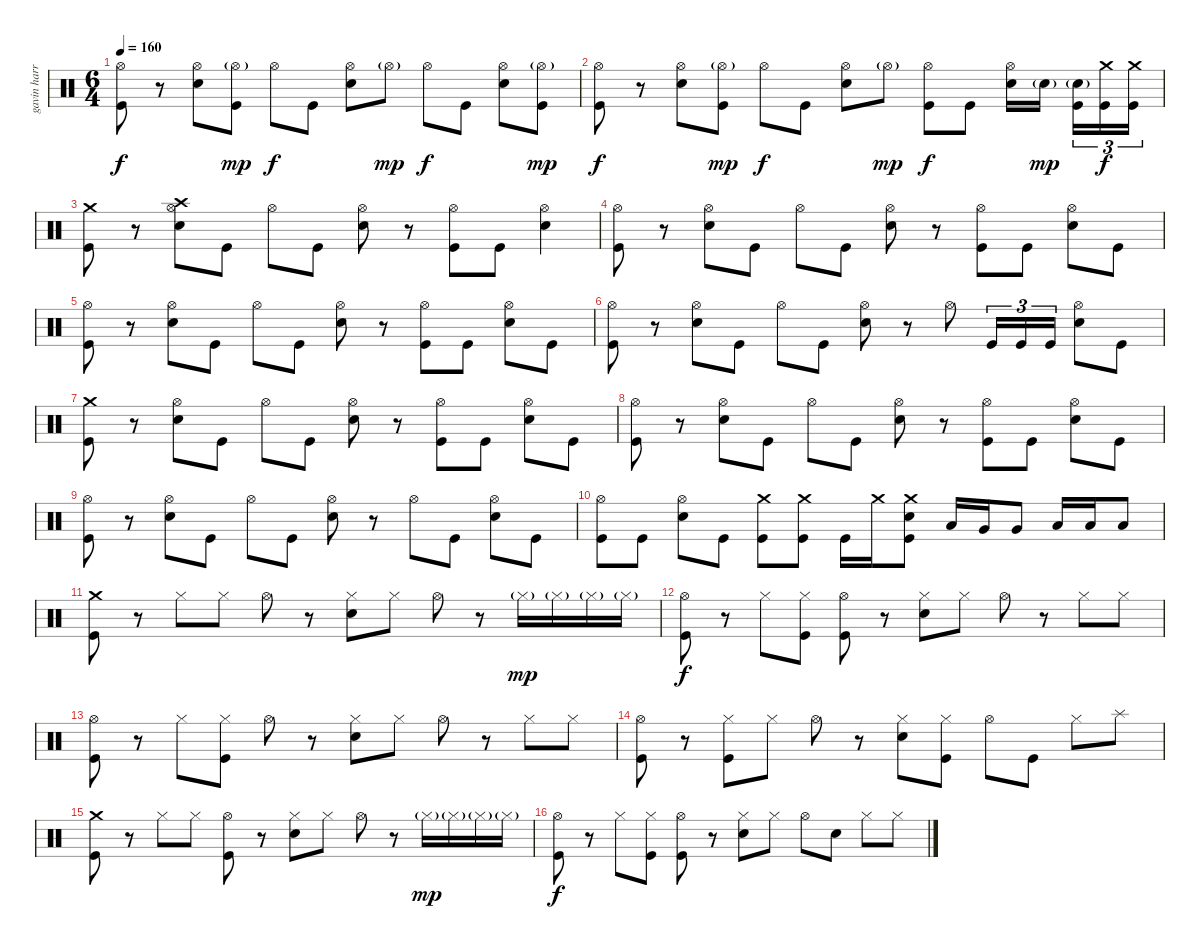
\track ("gavin harrison ( drum ) " "gavin harr") {instrument percussion}
\staff {score}
\articulation defaults
\ts (6 4)
\tempo 160
\clef neutral
\ks c
("Hi-Hat (open)" "Kick (hit)").8{dy f} r.8 ("Hi-Hat (open)" "Snare (hit) 2").8 ("Hi-Hat (open)"{g} "Kick (hit)").8{dy mp} "Hi-Hat (open)".8{dy f} "Kick (hit)".8 ("Hi-Hat (open)" "Snare (hit) 2").8 "Hi-Hat (open)"{g}.8{dy mp} "Hi-Hat (open)".8{dy f} "Kick (hit)".8 ("Hi-Hat (open)" "Snare (hit) 2").8 ("Hi-Hat (open)"{g} "Kick (hit)").8{dy mp} |
("Hi-Hat (open)" "Kick (hit)").8{dy f} r.8 ("Hi-Hat (open)" "Snare (hit) 2").8 ("Hi-Hat (open)"{g} "Kick (hit)").8{dy mp} "Hi-Hat (open)".8{dy f} "Kick (hit)".8 ("Hi-Hat (open)" "Snare (hit) 2").8 "Hi-Hat (open)"{g}.8{dy mp} ("Hi-Hat (open)" "Kick (hit)").8{dy f} "Kick (hit)".8 ("Hi-Hat (open)" "Snare (hit) 2").16 "Snare (hit) 2"{g}.16{dy mp beam splitsecondary} ("Snare (hit) 2"{g} "Kick (hit)").16{tu (3 2)} ("Crash medium (hit)" "Kick (hit)").16{tu (3 2) dy f} ("Crash medium (hit)" "Kick (hit)").16{tu (3 2)} |
("Crash medium (hit)" "Kick (hit)").8 r.8 ("Hi-Hat (open)" "Crash high (hit)" "Snare (hit) 2").8 "Kick (hit)".8 "Hi-Hat (open)".8 "Kick (hit)".8 ("Hi-Hat (open)" "Snare (hit) 2").8 r.8 ("Hi-Hat (open)" "Kick (hit)").8 "Kick (hit)".8 ("Hi-Hat (open)" "Snare (hit) 2").4 |
("Hi-Hat (open)" "Kick (hit)").8 r.8 ("Hi-Hat (open)" "Snare (hit) 2").8 "Kick (hit)".8 "Hi-Hat (open)".8 "Kick (hit)".8 ("Hi-Hat (open)" "Snare (hit) 2").8 r.8 ("Hi-Hat (open)" "Kick (hit)").8 "Kick (hit)".8 ("Hi-Hat (open)" "Snare (hit) 2").8 "Kick (hit)".8 |
("Hi-Hat (open)" "Kick (hit)").8 r.8 ("Hi-Hat (open)" "Snare (hit) 2").8 "Kick (hit)".8 "Hi-Hat (open)".8 "Kick (hit)".8 ("Hi-Hat (open)" "Snare (hit) 2").8 r.8 ("Hi-Hat (open)" "Kick (hit)").8 "Kick (hit)".8 ("Hi-Hat (open)" "Snare (hit) 2").8 "Kick (hit)".8 |
("Hi-Hat (open)" "Kick (hit)").8 r.8 ("Hi-Hat (open)" "Snare (hit) 2").8 "Kick (hit)".8 "Hi-Hat (open)".8 "Kick (hit)".8 ("Hi-Hat (open)" "Snare (hit) 2").8 r.8 "Hi-Hat (open)".8 "Kick (hit)".16{tu (3 2)} "Kick (hit)".16{tu (3 2)} "Kick (hit)".16{tu (3 2)} ("Hi-Hat (open)" "Snare (hit) 2").8 "Kick (hit)".8 |
("Crash medium (hit)" "Kick (hit)").8 r.8 ("Hi-Hat (open)" "Snare (hit) 2").8 "Kick (hit)".8 "Hi-Hat (open)".8 "Kick (hit)".8 ("Hi-Hat (open)" "Snare (hit) 2").8 r.8 ("Hi-Hat (open)" "Kick (hit)").8 "Kick (hit)".8 ("Hi-Hat (open)" "Snare (hit) 2").8 "Kick (hit)".8 |
("Hi-Hat (open)" "Kick (hit)").8 r.8 ("Hi-Hat (open)" "Snare (hit) 2").8 "Kick (hit)".8 "Hi-Hat (open)".8 "Kick (hit)".8 ("Hi-Hat (open)" "Snare (hit) 2").8 r.8 ("Hi-Hat (open)" "Kick (hit)").8 "Kick (hit)".8 ("Hi-Hat (open)" "Snare (hit) 2").8 "Kick (hit)".8 |
("Hi-Hat (open)" "Kick (hit)").8 r.8 ("Hi-Hat (open)" "Snare (hit) 2").8 "Kick (hit)".8 "Hi-Hat (open)".8 "Kick (hit)".8 ("Hi-Hat (open)" "Snare (hit) 2").8 r.8 "Hi-Hat (open)".8 "Kick (hit)".8 ("Hi-Hat (open)" "Snare (hit) 2").8 "Kick (hit)".8 |
("Hi-Hat (open)" "Kick (hit)").8 "Kick (hit)".8 ("Hi-Hat (open)" "Snare (hit) 2").8 "Kick (hit)".8 ("Crash medium (hit)" "Kick (hit)").8 ("Crash medium (hit)" "Kick (hit)").8 "Kick (hit)".16 "Crash medium (hit)".16 ("Crash medium (hit)" "Snare (hit) 2" "Kick (hit)").8 "Low Tom (hit)".16 "Very Low Tom (hit)".16 "Very Low Tom (hit)".8 "Low Floor Tom (hit)".16 "Low Floor Tom (hit)".16 "Low Floor Tom (hit)".8 |
("Crash medium (hit)" "Kick (hit)").8 r.8 "Hi-Hat (closed)".8 "Hi-Hat (closed)".8 "Hi-Hat (open)".8 r.8 ("Hi-Hat (closed)" "Snare (hit) 2").8 "Hi-Hat (closed)".8 "Hi-Hat (open)".8 r.8 "Hi-Hat (closed)"{g}.16{dy mp} "Hi-Hat (closed)"{g}.16 "Hi-Hat (closed)"{g}.16 "Hi-Hat (closed)"{g}.16 |
("Hi-Hat (open)" "Kick (hit)").8{dy f} r.8 "Hi-Hat (closed)".8 ("Hi-Hat (closed)" "Kick (hit)").8 ("Hi-Hat (open)" "Kick (hit)").8 r.8 ("Hi-Hat (closed)" "Snare (hit) 2").8 "Hi-Hat (closed)".8 "Hi-Hat (open)".8 r.8 "Hi-Hat (closed)".8 "Hi-Hat (closed)".8 |
("Hi-Hat (open)" "Kick (hit)").8 r.8 "Hi-Hat (closed)".8 ("Hi-Hat (closed)" "Kick (hit)").8 "Hi-Hat (open)".8 r.8 ("Hi-Hat (closed)" "Snare (hit) 2").8 "Hi-Hat (closed)".8 "Hi-Hat (open)".8 r.8 "Hi-Hat (closed)".8 "Hi-Hat (closed)".8 |
("Hi-Hat (open)" "Kick (hit)").8 r.8 ("Hi-Hat (closed)" "Kick (hit)").8 "Hi-Hat (closed)".8 "Hi-Hat (open)".8 r.8 ("Hi-Hat (closed)" "Snare (hit) 2").8 ("Hi-Hat (closed)" "Kick (hit)").8 "Hi-Hat (open)".8 "Kick (hit)".8 "Hi-Hat (closed)".8 "Splash (hit)".8 |
("Crash medium (hit)" "Kick (hit)").8 r.8 "Hi-Hat (closed)".8 "Hi-Hat (closed)".8 ("Hi-Hat (open)" "Kick (hit)").8 r.8 ("Hi-Hat (closed)" "Snare (hit) 2").8 "Hi-Hat (closed)".8 "Hi-Hat (open)".8 r.8 "Hi-Hat (closed)"{g}.16{dy mp} "Hi-Hat (closed)"{g}.16 "Hi-Hat (closed)"{g}.16 "Hi-Hat (closed)"{g}.16 |
("Hi-Hat (open)" "Kick (hit)").8{dy f} r.8 "Hi-Hat (closed)".8 ("Hi-Hat (closed)" "Kick (hit)").8 ("Hi-Hat (open)" "Kick (hit)").8 r.8 ("Hi-Hat (closed)" "Snare (hit) 2").8 "Hi-Hat (closed)".8 "Hi-Hat (open)".8 "Snare (hit) 2".8 "Hi-Hat (closed)".8 "Hi-Hat (closed)".8
